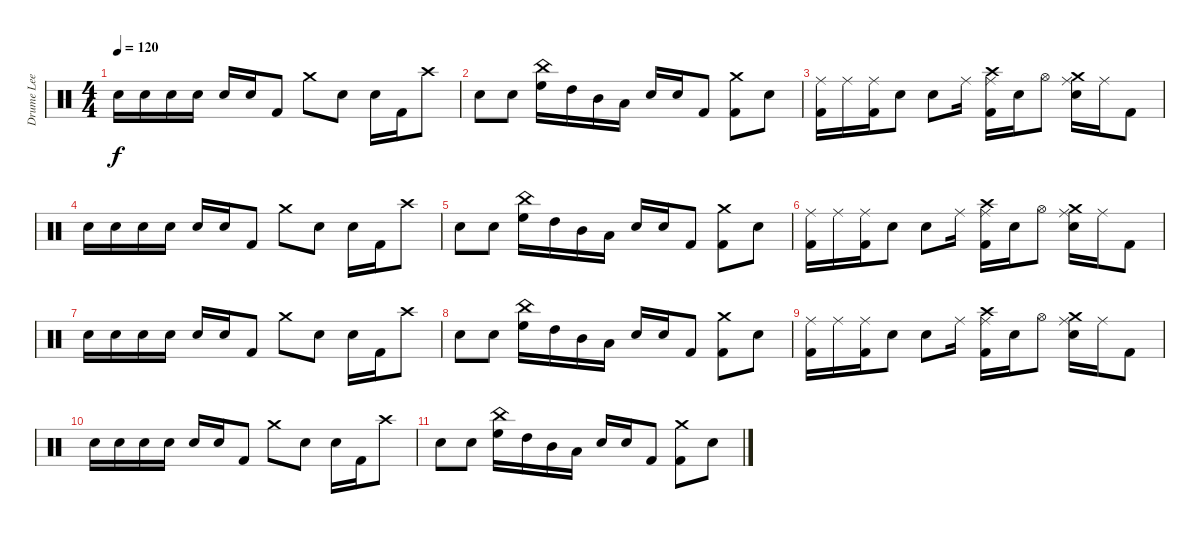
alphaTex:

\track ("Drume Lee Jhones" "Drume Lee ") {instrument percussion}
\staff {score}
\articulation defaults
\ts (4 4)
\tempo 120
\clef neutral
\ks c "Snare (hit) 2".16{dy f} "Snare (hit) 2".16 "Snare (hit) 2".16 "Snare (hit) 2".16 "Snare (hit) 2".16 "Snare (hit) 2".16 "Kick (hit) 2".8 "Crash medium (hit)".8 "Snare (hit) 2".8 "Snare (hit) 2".16 "Kick (hit) 2".16 "Crash high (hit)".8
|
"Snare (hit) 2".8 "Snare (hit) 2".8 ("China (hit)" "High Floor Tom (hit)").16 "High Tom (hit)".16 "Mid Tom (hit)".16 "Low Tom (hit)".16 "Snare (hit) 2".16 "Snare (hit) 2".16 "Kick (hit) 2".8 ("Crash medium (hit)" "Kick (hit) 2").8 "Snare (hit) 2".8 |
("Ride (middle)" "Kick (hit) 2").16 "Ride (middle)".16 ("Ride (middle)" "Kick (hit) 2").16 "Snare (hit) 2".8 "Snare (hit) 2".8 "Ride (middle)".16 ("Ride (middle)" "Crash high (hit)" "Kick (hit) 2").16 "Snare (hit) 2".16 "Hi-Hat (open)".8 ("Ride (middle)" "Crash medium (hit)" "Snare (hit) 2").16 "Ride (middle)".16 "Kick (hit) 2".8 |
"Snare (hit) 2".16 "Snare (hit) 2".16 "Snare (hit) 2".16 "Snare (hit) 2".16 "Snare (hit) 2".16 "Snare (hit) 2".16 "Kick (hit) 2".8 "Crash medium (hit)".8 "Snare (hit) 2".8 "Snare (hit) 2".16 "Kick (hit) 2".16 "Crash high (hit)".8 |
"Snare (hit) 2".8 "Snare (hit) 2".8 ("China (hit)" "High Floor Tom (hit)").16 "High Tom (hit)".16 "Mid Tom (hit)".16 "Low Tom (hit)".16 "Snare (hit) 2".16 "Snare (hit) 2".16 "Kick (hit) 2".8 ("Crash medium (hit)" "Kick (hit) 2").8 "Snare (hit) 2".8 |
("Ride (middle)" "Kick (hit) 2").16 "Ride (middle)".16 ("Ride (middle)" "Kick (hit) 2").16 "Snare (hit) 2".8 "Snare (hit) 2".8 "Ride (middle)".16 ("Ride (middle)" "Crash high (hit)" "Kick (hit) 2").16 "Snare (hit) 2".16 "Hi-Hat (open)".8 ("Ride (middle)" "Crash medium (hit)" "Snare (hit) 2").16 "Ride (middle)".16 "Kick (hit) 2".8 |
"Snare (hit) 2".16 "Snare (hit) 2".16 "Snare (hit) 2".16 "Snare (hit) 2".16 "Snare (hit) 2".16 "Snare (hit) 2".16 "Kick (hit) 2".8 "Crash medium (hit)".8 "Snare (hit) 2".8 "Snare (hit) 2".16 "Kick (hit) 2".16 "Crash high (hit)".8 |
"Snare (hit) 2".8 "Snare (hit) 2".8 ("China (hit)" "High Floor Tom (hit)").16 "High Tom (hit)".16 "Mid Tom (hit)".16 "Low Tom (hit)".16 "Snare (hit) 2".16 "Snare (hit) 2".16 "Kick (hit) 2".8 ("Crash medium (hit)" "Kick (hit) 2").8 "Snare (hit) 2".8 |
("Ride (middle)" "Kick (hit) 2").16 "Ride (middle)".16 ("Ride (middle)" "Kick (hit) 2").16 "Snare (hit) 2".8 "Snare (hit) 2".8 "Ride (middle)".16 ("Ride (middle)" "Crash high (hit)" "Kick (hit) 2").16 "Snare (hit) 2".16 "Hi-Hat (open)".8 ("Ride (middle)" "Crash medium (hit)" "Snare (hit) 2").16 "Ride (middle)".16 "Kick (hit) 2".8 |
"Snare (hit) 2".16 "Snare (hit) 2".16 "Snare (hit) 2".16 "Snare (hit) 2".16 "Snare (hit) 2".16 "Snare (hit) 2".16 "Kick (hit) 2".8 "Crash medium (hit)".8 "Snare (hit) 2".8 "Snare (hit) 2".16 "Kick (hit) 2".16 "Crash high (hit)".8 |
"Snare (hit) 2".8 "Snare (hit) 2".8 ("China (hit)" "High Floor Tom (hit)").16 "High Tom (hit)".16 "Mid Tom (hit)".16 "Low Tom (hit)".16 "Snare (hit) 2".16 "Snare (hit) 2".16 "Kick (hit) 2".8 ("Crash medium (hit)" "Kick (hit) 2").8 "Snare (hit) 2".8
